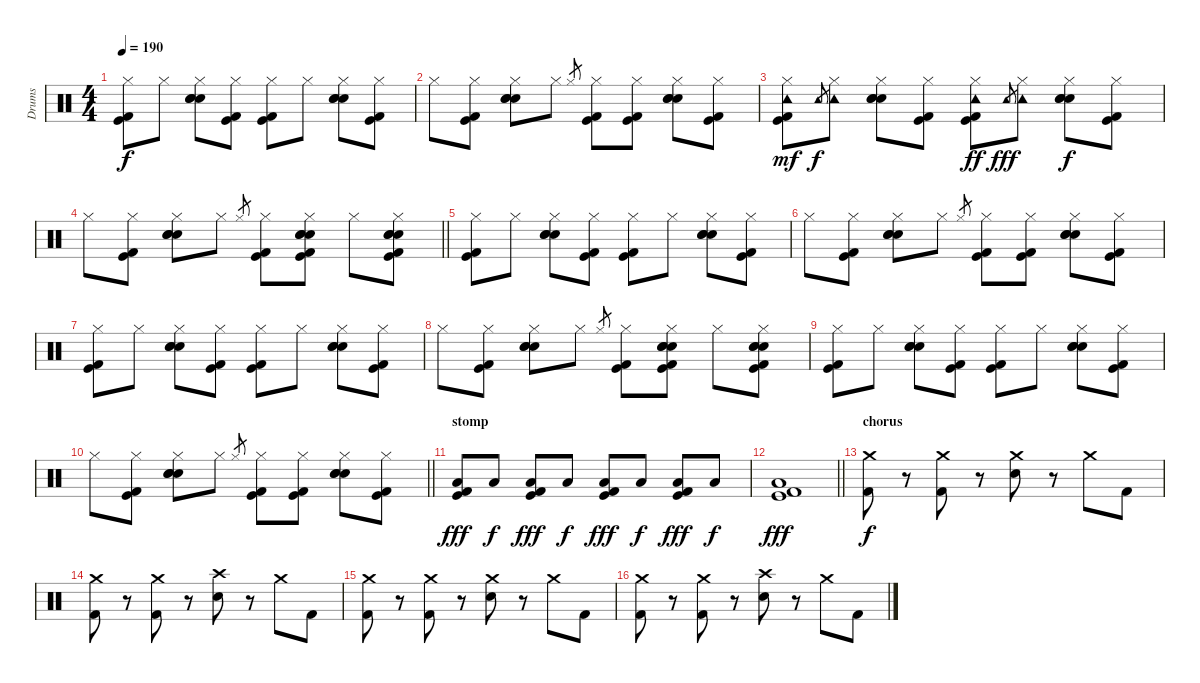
\track ("Drums" "Drums") {instrument percussion}
\staff {score}
\articulation defaults
\ts (4 4)
\tempo 190
\clef neutral
\ks c
("Hi-Hat (closed)" "Kick (hit)" "Kick (hit) 2").8{dy f} "Hi-Hat (closed)".8 ("Electric Snare (hit)" "Hi-Hat (closed)" "Hand Clap (hit)" "Snare (hit) 2").8 ("Hi-Hat (closed)" "Kick (hit)" "Kick (hit) 2").8 ("Hi-Hat (closed)" "Kick (hit)" "Kick (hit) 2").8 "Hi-Hat (closed)".8 ("Electric Snare (hit)" "Hi-Hat (closed)" "Hand Clap (hit)" "Snare (hit) 2").8 ("Hi-Hat (closed)" "Kick (hit)" "Kick (hit) 2").8 |
"Hi-Hat (closed)".8 ("Hi-Hat (closed)" "Kick (hit)" "Kick (hit) 2").8 ("Electric Snare (hit)" "Hi-Hat (closed)" "Hand Clap (hit)" "Snare (hit) 2").8 "Hi-Hat (closed)".8 "Hi-Hat (closed)".8{gr} ("Hi-Hat (closed)" "Kick (hit)" "Kick (hit) 2").8 ("Hi-Hat (closed)" "Kick (hit)" "Kick (hit) 2").8 ("Electric Snare (hit)" "Hi-Hat (closed)" "Hand Clap (hit)" "Snare (hit) 2").8 ("Hi-Hat (closed)" "Kick (hit)" "Kick (hit) 2").8 |
("Tambourine (hit)" "Hi-Hat (closed)" "Kick (hit)" "Kick (hit) 2").8{dy mf} "Tambourine (hit)".8{gr dy f} ("Tambourine (hit)" "Hi-Hat (closed)").8 ("Electric Snare (hit)" "Hi-Hat (closed)" "Hand Clap (hit)" "Snare (hit) 2").8 ("Hi-Hat (closed)" "Kick (hit)" "Kick (hit) 2").8 ("Tambourine (hit)" "Hi-Hat (closed)" "Kick (hit)" "Kick (hit) 2").8{dy ff} "Tambourine (hit)".8{gr dy fff} ("Tambourine (hit)" "Hi-Hat (closed)").8 ("Electric Snare (hit)" "Hi-Hat (closed)" "Hand Clap (hit)" "Snare (hit) 2").8{dy f} ("Hi-Hat (closed)" "Kick (hit)" "Kick (hit) 2").8 |
\barLineRight lightlight "Hi-Hat (closed)".8
("Hi-Hat (closed)" "Kick (hit)" "Kick (hit) 2").8 ("Electric Snare (hit)" "Hi-Hat (closed)" "Hand Clap (hit)" "Snare (hit) 2").8 "Hi-Hat (closed)".8 "Hi-Hat (closed)".8{gr} ("Hi-Hat (closed)" "Kick (hit)" "Kick (hit) 2").8 ("Hand Clap (hit)" "Electric Snare (hit)" "Hi-Hat (closed)" "Kick (hit)" "Snare (hit) 2" "Kick (hit) 2").8 "Hi-Hat (closed)".8 ("Hand Clap (hit)" "Electric Snare (hit)" "Hi-Hat (closed)" "Snare (hit) 2" "Kick (hit)" "Kick (hit) 2").8 |
("Hi-Hat (closed)" "Kick (hit)" "Kick (hit) 2").8 "Hi-Hat (closed)".8 ("Electric Snare (hit)" "Hi-Hat (closed)" "Hand Clap (hit)" "Snare (hit) 2").8 ("Hi-Hat (closed)" "Kick (hit)" "Kick (hit) 2").8 ("Hi-Hat (closed)" "Kick (hit)" "Kick (hit) 2").8 "Hi-Hat (closed)".8 ("Electric Snare (hit)" "Hi-Hat (closed)" "Hand Clap (hit)" "Snare (hit) 2").8 ("Hi-Hat (closed)" "Kick (hit)" "Kick (hit) 2").8 |
"Hi-Hat (closed)".8 ("Hi-Hat (closed)" "Kick (hit)" "Kick (hit) 2").8 ("Electric Snare (hit)" "Hi-Hat (closed)" "Hand Clap (hit)" "Snare (hit) 2").8 "Hi-Hat (closed)".8 "Hi-Hat (closed)".8{gr} ("Hi-Hat (closed)" "Kick (hit)" "Kick (hit) 2").8 ("Hi-Hat (closed)" "Kick (hit)" "Kick (hit) 2").8 ("Electric Snare (hit)" "Hi-Hat (closed)" "Hand Clap (hit)" "Snare (hit) 2").8 ("Hi-Hat (closed)" "Kick (hit)" "Kick (hit) 2").8 |
("Hi-Hat (closed)" "Kick (hit)" "Kick (hit) 2").8 "Hi-Hat (closed)".8 ("Electric Snare (hit)" "Hi-Hat (closed)" "Hand Clap (hit)" "Snare (hit) 2").8 ("Hi-Hat (closed)" "Kick (hit)" "Kick (hit) 2").8 ("Hi-Hat (closed)" "Kick (hit)" "Kick (hit) 2").8 "Hi-Hat (closed)".8 ("Electric Snare (hit)" "Hi-Hat (closed)" "Hand Clap (hit)" "Snare (hit) 2").8 ("Hi-Hat (closed)" "Kick (hit)" "Kick (hit) 2").8 |
"Hi-Hat (closed)".8 ("Hi-Hat (closed)" "Kick (hit)" "Kick (hit) 2").8 ("Electric Snare (hit)" "Hi-Hat (closed)" "Hand Clap (hit)" "Snare (hit) 2").8 "Hi-Hat (closed)".8 "Hi-Hat (closed)".8{gr} ("Hi-Hat (closed)" "Kick (hit)" "Kick (hit) 2").8 ("Hand Clap (hit)" "Electric Snare (hit)" "Hi-Hat (closed)" "Kick (hit)" "Snare (hit) 2" "Kick (hit) 2").8 "Hi-Hat (closed)".8 ("Hand Clap (hit)" "Electric Snare (hit)" "Hi-Hat (closed)" "Snare (hit) 2" "Kick (hit)" "Kick (hit) 2").8 |
("Hi-Hat (closed)" "Kick (hit)" "Kick (hit) 2").8 "Hi-Hat (closed)".8 ("Electric Snare (hit)" "Hi-Hat (closed)" "Hand Clap (hit)" "Snare (hit) 2").8 ("Hi-Hat (closed)" "Kick (hit)" "Kick (hit) 2").8 ("Hi-Hat (closed)" "Kick (hit)" "Kick (hit) 2").8 "Hi-Hat (closed)".8 ("Electric Snare (hit)" "Hi-Hat (closed)" "Hand Clap (hit)" "Snare (hit) 2").8 ("Hi-Hat (closed)" "Kick (hit)" "Kick (hit) 2").8 |
\barLineRight lightlight "Hi-Hat (closed)".8
("Hi-Hat (closed)" "Kick (hit)" "Kick (hit) 2").8 ("Electric Snare (hit)" "Hi-Hat (closed)" "Hand Clap (hit)" "Snare (hit) 2").8 "Hi-Hat (closed)".8 "Hi-Hat (closed)".8{gr} ("Hi-Hat (closed)" "Kick (hit)" "Kick (hit) 2").8 ("Hi-Hat (closed)" "Kick (hit)" "Kick (hit) 2").8 ("Electric Snare (hit)" "Hi-Hat (closed)" "Hand Clap (hit)" "Snare (hit) 2").8 ("Hi-Hat (closed)" "Kick (hit)" "Kick (hit) 2").8 |
\section ("" "stomp")
("Low Floor Tom (hit)" "Kick (hit)" "Kick (hit) 2").8{dy fff} "Low Floor Tom (hit)".8{dy f} ("Low Floor Tom (hit)" "Kick (hit)" "Kick (hit) 2").8{dy fff} "Low Floor Tom (hit)".8{dy f} ("Low Floor Tom (hit)" "Kick (hit)" "Kick (hit) 2").8{dy fff} "Low Floor Tom (hit)".8{dy f} ("Low Floor Tom (hit)" "Kick (hit)" "Kick (hit) 2").8{dy fff} "Low Floor Tom (hit)".8{dy f} |
\barLineRight lightlight
("Low Floor Tom (hit)" "Kick (hit)" "Kick (hit) 2").1{dy fff} |
\section ("" "chorus")
("Crash medium (hit)" "Kick (hit) 2").8{dy f} r.8 ("Crash medium (hit)" "Kick (hit) 2").8 r.8 ("Crash medium (hit)" "Electric Snare (hit)").8 r.8 "Crash medium (hit)".8 "Kick (hit) 2".8 |
("Crash medium (hit)" "Kick (hit) 2").8 r.8 ("Crash medium (hit)" "Kick (hit) 2").8 r.8 ("Crash high (hit)" "Electric Snare (hit)").8 r.8 "Crash medium (hit)".8 "Kick (hit) 2".8 |
("Crash medium (hit)" "Kick (hit) 2").8 r.8 ("Crash medium (hit)" "Kick (hit) 2").8 r.8 ("Crash medium (hit)" "Electric Snare (hit)").8 r.8 "Crash medium (hit)".8 "Kick (hit) 2".8 |
("Crash medium (hit)" "Kick (hit) 2").8 r.8 ("Crash medium (hit)" "Kick (hit) 2").8 r.8 ("Crash high (hit)" "Electric Snare (hit)").8 r.8 "Crash medium (hit)".8 "Kick (hit) 2".8
